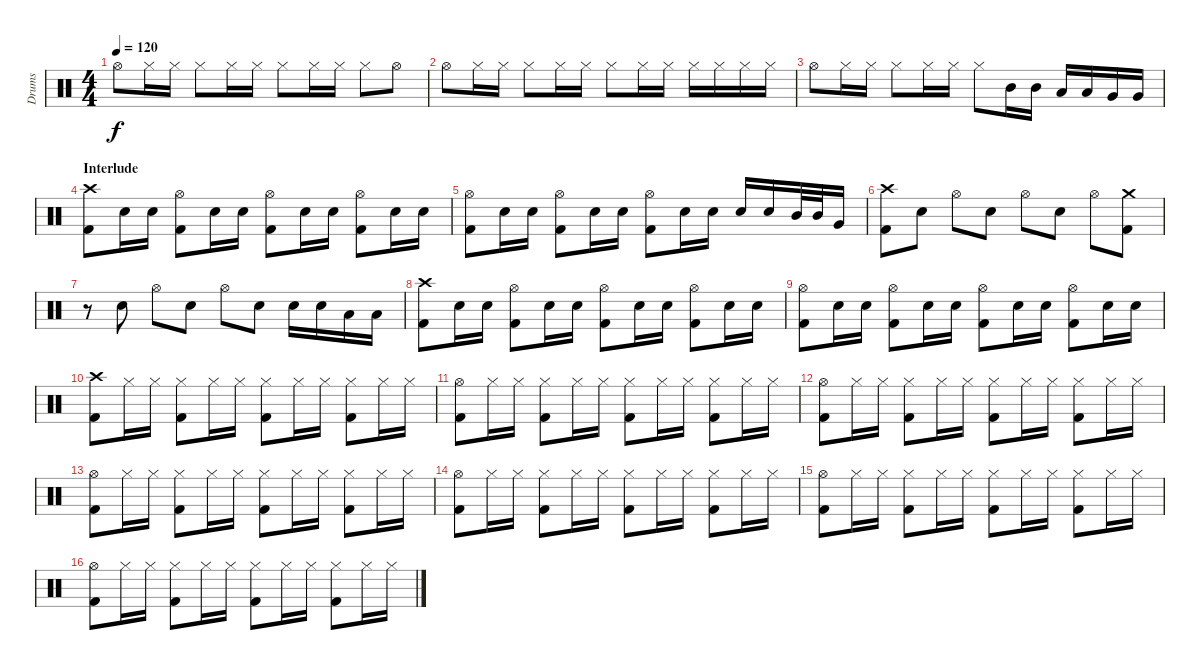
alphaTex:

\track ("Drums" "Drums") {instrument percussion}
\staff {score}
\articulation defaults
\ts (4 4)
\tempo 120
\clef neutral
\ks c "Hi-Hat (open)".8{dy f} "Hi-Hat (closed)".16 "Hi-Hat (closed)".16 "Hi-Hat (closed)".8 "Hi-Hat (closed)".16 "Hi-Hat (closed)".16 "Hi-Hat (closed)".8 "Hi-Hat (closed)".16 "Hi-Hat (closed)".16 "Hi-Hat (closed)".8 "Hi-Hat (open)".8
|
"Hi-Hat (open)".8 "Hi-Hat (closed)".16 "Hi-Hat (closed)".16 "Hi-Hat (closed)".8 "Hi-Hat (closed)".16 "Hi-Hat (closed)".16 "Hi-Hat (closed)".8 "Hi-Hat (closed)".16 "Hi-Hat (closed)".16 "Hi-Hat (closed)".16 "Hi-Hat (closed)".16 "Hi-Hat (closed)".16 "Hi-Hat (closed)".16 |
"Hi-Hat (open)".8 "Hi-Hat (closed)".16 "Hi-Hat (closed)".16 "Hi-Hat (closed)".8 "Hi-Hat (closed)".16 "Hi-Hat (closed)".16 "Hi-Hat (closed)".8 "Mid Tom (hit)".16 "Mid Tom (hit)".16 "Low Tom (hit)".16 "Low Tom (hit)".16 "Very Low Tom (hit)".16 "Very Low Tom (hit)".16 |
\section ("" "Interlude")
("Crash high (hit)" "Kick (hit) 2").8 "Electric Snare (hit)".16 "Electric Snare (hit)".16 ("Hi-Hat (open)" "Kick (hit) 2").8 "Electric Snare (hit)".16 "Electric Snare (hit)".16 ("Hi-Hat (open)" "Kick (hit) 2").8 "Electric Snare (hit)".16 "Electric Snare (hit)".16 ("Hi-Hat (open)" "Kick (hit) 2").8 "Electric Snare (hit)".16 "Electric Snare (hit)".16 |
("Hi-Hat (open)" "Kick (hit) 2").8 "Electric Snare (hit)".16 "Electric Snare (hit)".16 ("Hi-Hat (open)" "Kick (hit) 2").8 "Electric Snare (hit)".16 "Electric Snare (hit)".16 ("Hi-Hat (open)" "Kick (hit) 2").8 "Electric Snare (hit)".16 "Electric Snare (hit)".16 "Electric Snare (hit)".16 "Electric Snare (hit)".16 "Mid Tom (hit)".32 "Mid Tom (hit)".32 "Very Low Tom (hit)".16 |
("Crash high (hit)" "Kick (hit) 2").8 "Electric Snare (hit)".8 "Hi-Hat (open)".8 "Electric Snare (hit)".8 "Hi-Hat (open)".8 "Electric Snare (hit)".8 "Hi-Hat (open)".8 ("Crash medium (hit)" "Kick (hit) 2").8 |
r.8 "Electric Snare (hit)".8 "Hi-Hat (open)".8 "Electric Snare (hit)".8 "Hi-Hat (open)".8 "Electric Snare (hit)".8 "Electric Snare (hit)".16 "Electric Snare (hit)".16 "Low Tom (hit)".16 "Low Tom (hit)".16 |
("Crash high (hit)" "Kick (hit) 2").8 "Electric Snare (hit)".16 "Electric Snare (hit)".16 ("Hi-Hat (open)" "Kick (hit) 2").8 "Electric Snare (hit)".16 "Electric Snare (hit)".16 ("Hi-Hat (open)" "Kick (hit) 2").8 "Electric Snare (hit)".16 "Electric Snare (hit)".16 ("Hi-Hat (open)" "Kick (hit) 2").8 "Electric Snare (hit)".16 "Electric Snare (hit)".16 |
("Hi-Hat (open)" "Kick (hit) 2").8 "Electric Snare (hit)".16 "Electric Snare (hit)".16 ("Hi-Hat (open)" "Kick (hit) 2").8 "Electric Snare (hit)".16 "Electric Snare (hit)".16 ("Hi-Hat (open)" "Kick (hit) 2").8 "Electric Snare (hit)".16 "Electric Snare (hit)".16 ("Hi-Hat (open)" "Kick (hit) 2").8 "Electric Snare (hit)".16 "Electric Snare (hit)".16 |
("Crash high (hit)" "Kick (hit) 2").8 "Hi-Hat (closed)".16 "Hi-Hat (closed)".16 ("Hi-Hat (closed)" "Kick (hit) 2").8 "Hi-Hat (closed)".16 "Hi-Hat (closed)".16 ("Hi-Hat (closed)" "Kick (hit) 2").8 "Hi-Hat (closed)".16 "Hi-Hat (closed)".16 ("Hi-Hat (closed)" "Kick (hit) 2").8 "Hi-Hat (closed)".16 "Hi-Hat (closed)".16 |
("Hi-Hat (open)" "Kick (hit) 2").8 "Hi-Hat (closed)".16 "Hi-Hat (closed)".16 ("Hi-Hat (closed)" "Kick (hit) 2").8 "Hi-Hat (closed)".16 "Hi-Hat (closed)".16 ("Hi-Hat (closed)" "Kick (hit) 2").8 "Hi-Hat (closed)".16 "Hi-Hat (closed)".16 ("Hi-Hat (closed)" "Kick (hit) 2").8 "Hi-Hat (closed)".16 "Hi-Hat (closed)".16 |
("Hi-Hat (open)" "Kick (hit) 2").8 "Hi-Hat (closed)".16 "Hi-Hat (closed)".16 ("Hi-Hat (closed)" "Kick (hit) 2").8 "Hi-Hat (closed)".16 "Hi-Hat (closed)".16 ("Hi-Hat (closed)" "Kick (hit) 2").8 "Hi-Hat (closed)".16 "Hi-Hat (closed)".16 ("Hi-Hat (closed)" "Kick (hit) 2").8 "Hi-Hat (closed)".16 "Hi-Hat (closed)".16 |
("Hi-Hat (open)" "Kick (hit) 2").8 "Hi-Hat (closed)".16 "Hi-Hat (closed)".16 ("Hi-Hat (closed)" "Kick (hit) 2").8 "Hi-Hat (closed)".16 "Hi-Hat (closed)".16 ("Hi-Hat (closed)" "Kick (hit) 2").8 "Hi-Hat (closed)".16 "Hi-Hat (closed)".16 ("Hi-Hat (closed)" "Kick (hit) 2").8 "Hi-Hat (closed)".16 "Hi-Hat (closed)".16 |
("Hi-Hat (open)" "Kick (hit) 2").8 "Hi-Hat (closed)".16 "Hi-Hat (closed)".16 ("Hi-Hat (closed)" "Kick (hit) 2").8 "Hi-Hat (closed)".16 "Hi-Hat (closed)".16 ("Hi-Hat (closed)" "Kick (hit) 2").8 "Hi-Hat (closed)".16 "Hi-Hat (closed)".16 ("Hi-Hat (closed)" "Kick (hit) 2").8 "Hi-Hat (closed)".16 "Hi-Hat (closed)".16 |
("Hi-Hat (open)" "Kick (hit) 2").8 "Hi-Hat (closed)".16 "Hi-Hat (closed)".16 ("Hi-Hat (closed)" "Kick (hit) 2").8 "Hi-Hat (closed)".16 "Hi-Hat (closed)".16 ("Hi-Hat (closed)" "Kick (hit) 2").8 "Hi-Hat (closed)".16 "Hi-Hat (closed)".16 ("Hi-Hat (closed)" "Kick (hit) 2").8 "Hi-Hat (closed)".16 "Hi-Hat (closed)".16 |
("Hi-Hat (open)" "Kick (hit) 2").8 "Hi-Hat (closed)".16 "Hi-Hat (closed)".16 ("Hi-Hat (closed)" "Kick (hit) 2").8 "Hi-Hat (closed)".16 "Hi-Hat (closed)".16 ("Hi-Hat (closed)" "Kick (hit) 2").8 "Hi-Hat (closed)".16 "Hi-Hat (closed)".16 ("Hi-Hat (closed)" "Kick (hit) 2").8 "Hi-Hat (closed)".16 "Hi-Hat (closed)".16
